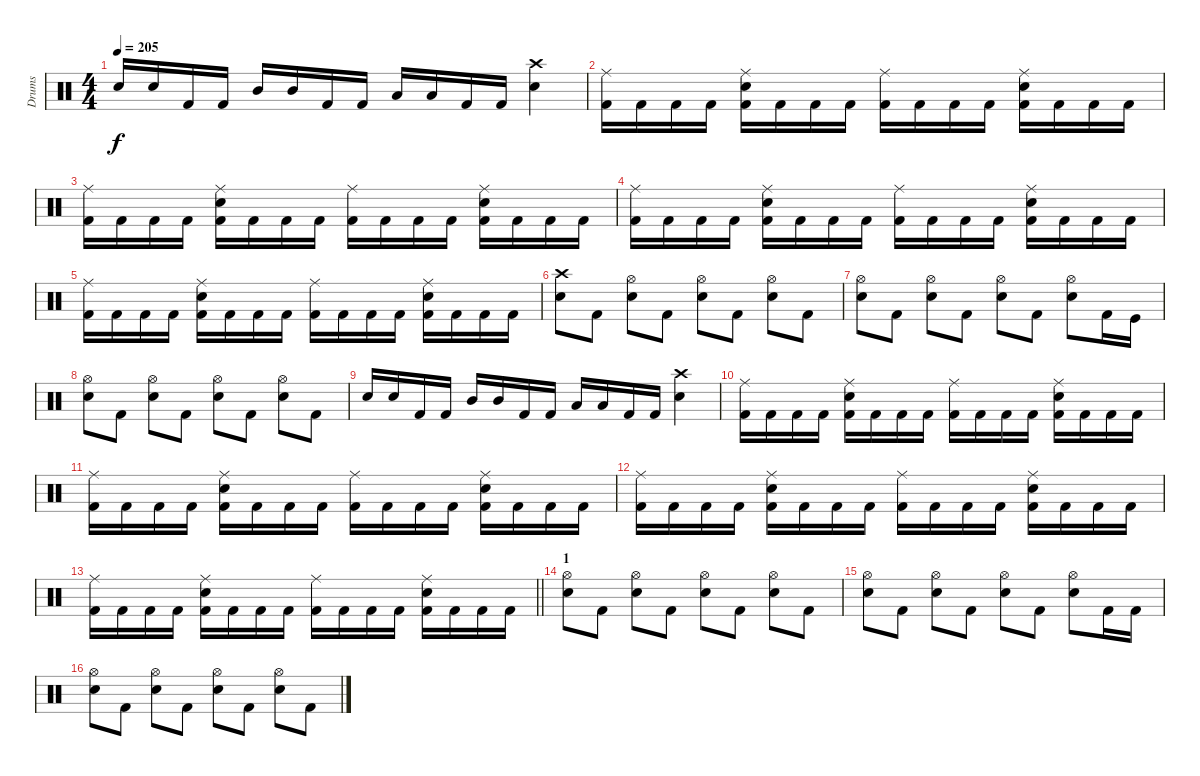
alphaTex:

\track ("Drums" "Drums") {instrument percussion}
\staff {score}
\articulation defaults
\ts (4 4)
\tempo 205
\clef neutral
\ks c "Electric Snare (hit)".16{dy f} "Electric Snare (hit)".16 "Kick (hit) 2".16 "Kick (hit) 2".16 "Mid Tom (hit)".16 "Mid Tom (hit)".16 "Kick (hit) 2".16 "Kick (hit) 2".16 "Low Tom (hit)".16 "Low Tom (hit)".16 "Kick (hit) 2".16 "Kick (hit) 2".16
("Crash high (hit)" "Electric Snare (hit)").4 |
("Ride (middle)" "Kick (hit) 2").16 "Kick (hit) 2".16 "Kick (hit) 2".16 "Kick (hit) 2".16 ("Ride (middle)" "Electric Snare (hit)" "Kick (hit) 2").16 "Kick (hit) 2".16 "Kick (hit) 2".16 "Kick (hit) 2".16 ("Ride (middle)" "Kick (hit) 2").16 "Kick (hit) 2".16 "Kick (hit) 2".16 "Kick (hit) 2".16 ("Ride (middle)" "Electric Snare (hit)" "Kick (hit) 2").16 "Kick (hit) 2".16 "Kick (hit) 2".16 "Kick (hit) 2".16 |
("Ride (middle)" "Kick (hit) 2").16 "Kick (hit) 2".16 "Kick (hit) 2".16 "Kick (hit) 2".16 ("Ride (middle)" "Electric Snare (hit)" "Kick (hit) 2").16 "Kick (hit) 2".16 "Kick (hit) 2".16 "Kick (hit) 2".16 ("Ride (middle)" "Kick (hit) 2").16 "Kick (hit) 2".16 "Kick (hit) 2".16 "Kick (hit) 2".16 ("Ride (middle)" "Electric Snare (hit)" "Kick (hit) 2").16 "Kick (hit) 2".16 "Kick (hit) 2".16 "Kick (hit) 2".16 |
("Ride (middle)" "Kick (hit) 2").16 "Kick (hit) 2".16 "Kick (hit) 2".16 "Kick (hit) 2".16 ("Ride (middle)" "Electric Snare (hit)" "Kick (hit) 2").16 "Kick (hit) 2".16 "Kick (hit) 2".16 "Kick (hit) 2".16 ("Ride (middle)" "Kick (hit) 2").16 "Kick (hit) 2".16 "Kick (hit) 2".16 "Kick (hit) 2".16 ("Ride (middle)" "Electric Snare (hit)" "Kick (hit) 2").16 "Kick (hit) 2".16 "Kick (hit) 2".16 "Kick (hit) 2".16 |
("Ride (middle)" "Kick (hit) 2").16 "Kick (hit) 2".16 "Kick (hit) 2".16 "Kick (hit) 2".16 ("Ride (middle)" "Electric Snare (hit)" "Kick (hit) 2").16 "Kick (hit) 2".16 "Kick (hit) 2".16 "Kick (hit) 2".16 ("Ride (middle)" "Kick (hit) 2").16 "Kick (hit) 2".16 "Kick (hit) 2".16 "Kick (hit) 2".16 ("Ride (middle)" "Electric Snare (hit)" "Kick (hit) 2").16 "Kick (hit) 2".16 "Kick (hit) 2".16 "Kick (hit) 2".16 |
("Crash high (hit)" "Electric Snare (hit)").8 "Kick (hit) 2".8 ("Hi-Hat (open)" "Electric Snare (hit)").8 "Kick (hit) 2".8 ("Hi-Hat (open)" "Electric Snare (hit)").8 "Kick (hit) 2".8 ("Hi-Hat (open)" "Electric Snare (hit)").8 "Kick (hit) 2".8 |
("Hi-Hat (open)" "Electric Snare (hit)").8 "Kick (hit) 2".8 ("Hi-Hat (open)" "Electric Snare (hit)").8 "Kick (hit) 2".8 ("Hi-Hat (open)" "Electric Snare (hit)").8 "Kick (hit) 2".8 ("Hi-Hat (open)" "Electric Snare (hit)").8 "Kick (hit) 2".16 "Kick (hit)".16 |
("Hi-Hat (open)" "Electric Snare (hit)").8 "Kick (hit) 2".8 ("Hi-Hat (open)" "Electric Snare (hit)").8 "Kick (hit) 2".8 ("Hi-Hat (open)" "Electric Snare (hit)").8 "Kick (hit) 2".8 ("Hi-Hat (open)" "Electric Snare (hit)").8 "Kick (hit) 2".8 |
"Electric Snare (hit)".16 "Electric Snare (hit)".16 "Kick (hit) 2".16 "Kick (hit) 2".16 "Mid Tom (hit)".16 "Mid Tom (hit)".16 "Kick (hit) 2".16 "Kick (hit) 2".16 "Low Tom (hit)".16 "Low Tom (hit)".16 "Kick (hit) 2".16 "Kick (hit) 2".16 ("Crash high (hit)" "Electric Snare (hit)").4 |
("Ride (middle)" "Kick (hit) 2").16 "Kick (hit) 2".16 "Kick (hit) 2".16 "Kick (hit) 2".16 ("Ride (middle)" "Electric Snare (hit)" "Kick (hit) 2").16 "Kick (hit) 2".16 "Kick (hit) 2".16 "Kick (hit) 2".16 ("Ride (middle)" "Kick (hit) 2").16 "Kick (hit) 2".16 "Kick (hit) 2".16 "Kick (hit) 2".16 ("Ride (middle)" "Electric Snare (hit)" "Kick (hit) 2").16 "Kick (hit) 2".16 "Kick (hit) 2".16 "Kick (hit) 2".16 |
("Ride (middle)" "Kick (hit) 2").16 "Kick (hit) 2".16 "Kick (hit) 2".16 "Kick (hit) 2".16 ("Ride (middle)" "Electric Snare (hit)" "Kick (hit) 2").16 "Kick (hit) 2".16 "Kick (hit) 2".16 "Kick (hit) 2".16 ("Ride (middle)" "Kick (hit) 2").16 "Kick (hit) 2".16 "Kick (hit) 2".16 "Kick (hit) 2".16 ("Ride (middle)" "Electric Snare (hit)" "Kick (hit) 2").16 "Kick (hit) 2".16 "Kick (hit) 2".16 "Kick (hit) 2".16 |
("Ride (middle)" "Kick (hit) 2").16 "Kick (hit) 2".16 "Kick (hit) 2".16 "Kick (hit) 2".16 ("Ride (middle)" "Electric Snare (hit)" "Kick (hit) 2").16 "Kick (hit) 2".16 "Kick (hit) 2".16 "Kick (hit) 2".16 ("Ride (middle)" "Kick (hit) 2").16 "Kick (hit) 2".16 "Kick (hit) 2".16 "Kick (hit) 2".16 ("Ride (middle)" "Electric Snare (hit)" "Kick (hit) 2").16 "Kick (hit) 2".16 "Kick (hit) 2".16 "Kick (hit) 2".16 |
\barLineRight lightlight
("Ride (middle)" "Kick (hit) 2").16 "Kick (hit) 2".16 "Kick (hit) 2".16 "Kick (hit) 2".16 ("Ride (middle)" "Electric Snare (hit)" "Kick (hit) 2").16 "Kick (hit) 2".16 "Kick (hit) 2".16 "Kick (hit) 2".16 ("Ride (middle)" "Kick (hit) 2").16 "Kick (hit) 2".16 "Kick (hit) 2".16 "Kick (hit) 2".16 ("Ride (middle)" "Electric Snare (hit)" "Kick (hit) 2").16 "Kick (hit) 2".16 "Kick (hit) 2".16 "Kick (hit) 2".16 |
\section ("" "1")
("Hi-Hat (open)" "Electric Snare (hit)").8 "Kick (hit) 2".8 ("Hi-Hat (open)" "Electric Snare (hit)").8 "Kick (hit) 2".8 ("Hi-Hat (open)" "Electric Snare (hit)").8 "Kick (hit) 2".8 ("Hi-Hat (open)" "Electric Snare (hit)").8 "Kick (hit) 2".8 |
("Hi-Hat (open)" "Electric Snare (hit)").8 "Kick (hit) 2".8 ("Hi-Hat (open)" "Electric Snare (hit)").8 "Kick (hit) 2".8 ("Hi-Hat (open)" "Electric Snare (hit)").8 "Kick (hit) 2".8 ("Hi-Hat (open)" "Electric Snare (hit)").8 "Kick (hit) 2".16 "Kick (hit) 2".16 |
("Hi-Hat (open)" "Electric Snare (hit)").8 "Kick (hit) 2".8 ("Hi-Hat (open)" "Electric Snare (hit)").8 "Kick (hit) 2".8 ("Hi-Hat (open)" "Electric Snare (hit)").8 "Kick (hit) 2".8 ("Hi-Hat (open)" "Electric Snare (hit)").8 "Kick (hit) 2".8
